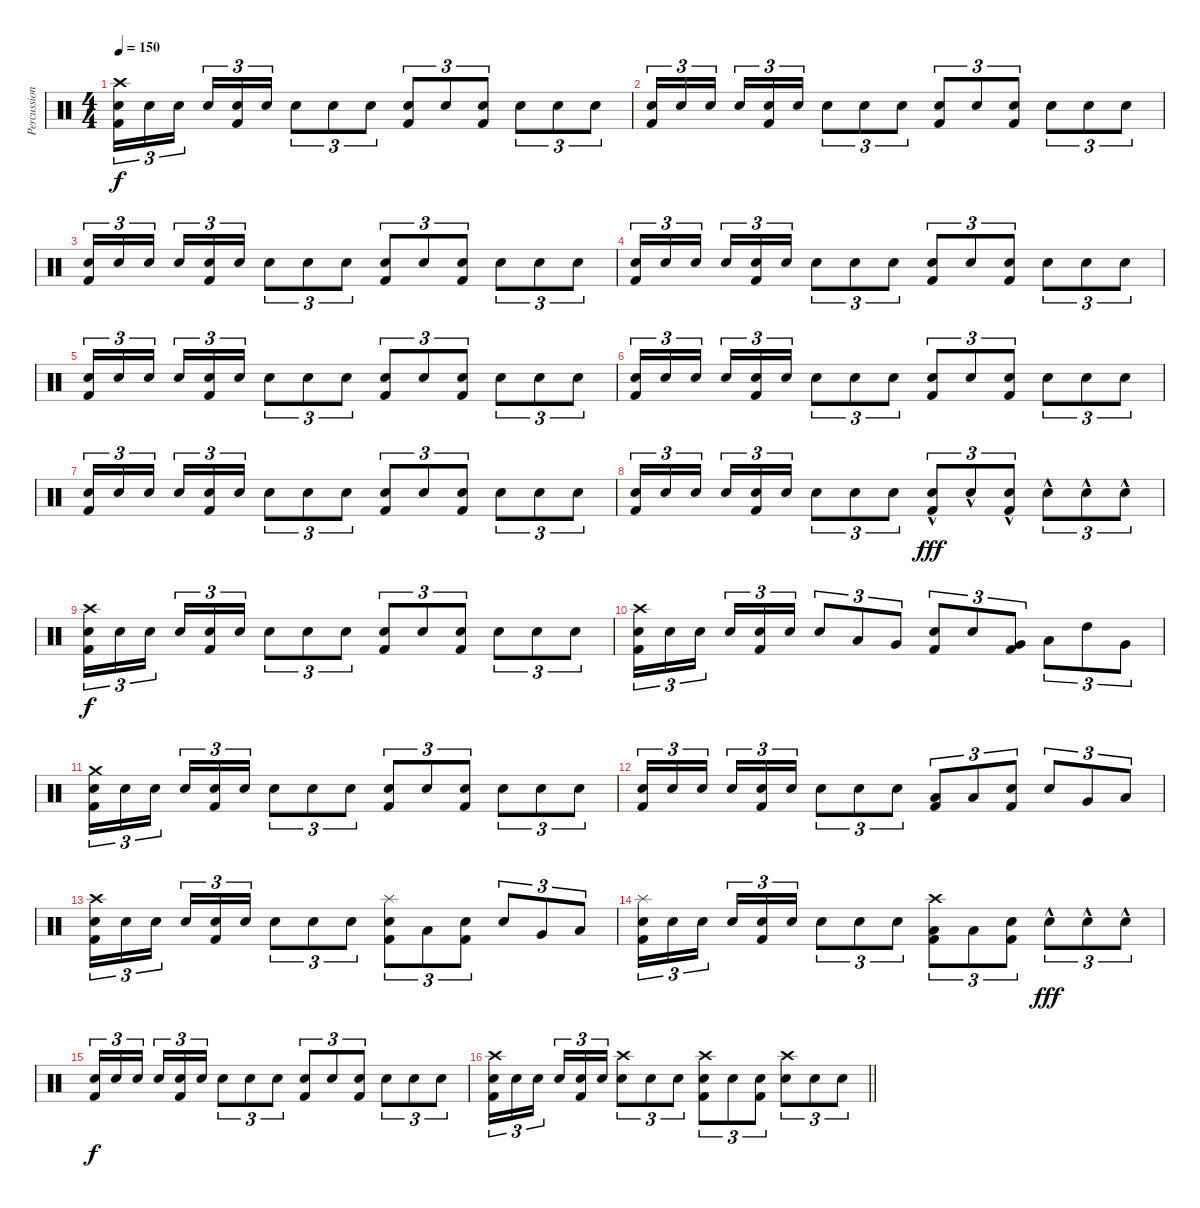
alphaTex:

\track ("Percussion" "Percussion") {instrument percussion}
\staff {score}
\articulation defaults
\ts (4 4)
\tempo 150
\clef neutral
\ks c
("Crash high (hit)" "Electric Snare (hit)" "Kick (hit) 2").16{tu (3 2) dy f} "Electric Snare (hit)".16{tu (3 2)} "Electric Snare (hit)".16{tu (3 2) beam splitsecondary} "Electric Snare (hit)".16{tu (3 2)} ("Electric Snare (hit)" "Kick (hit) 2").16{tu (3 2)} "Electric Snare (hit)".16{tu (3 2)} "Electric Snare (hit)".8{tu (3 2)} "Electric Snare (hit)".8{tu (3 2)} "Electric Snare (hit)".8{tu (3 2)} ("Electric Snare (hit)" "Kick (hit) 2").8{tu (3 2)} "Electric Snare (hit)".8{tu (3 2)} ("Electric Snare (hit)" "Kick (hit) 2").8{tu (3 2)} "Electric Snare (hit)".8{tu (3 2)} "Electric Snare (hit)".8{tu (3 2)} "Electric Snare (hit)".8{tu (3 2)} |
("Electric Snare (hit)" "Kick (hit) 2").16{tu (3 2)} "Electric Snare (hit)".16{tu (3 2)} "Electric Snare (hit)".16{tu (3 2) beam splitsecondary} "Electric Snare (hit)".16{tu (3 2)} ("Electric Snare (hit)" "Kick (hit) 2").16{tu (3 2)} "Electric Snare (hit)".16{tu (3 2)} "Electric Snare (hit)".8{tu (3 2)} "Electric Snare (hit)".8{tu (3 2)} "Electric Snare (hit)".8{tu (3 2)} ("Electric Snare (hit)" "Kick (hit) 2").8{tu (3 2)} "Electric Snare (hit)".8{tu (3 2)} ("Electric Snare (hit)" "Kick (hit) 2").8{tu (3 2)} "Electric Snare (hit)".8{tu (3 2)} "Electric Snare (hit)".8{tu (3 2)} "Electric Snare (hit)".8{tu (3 2)} |
("Electric Snare (hit)" "Kick (hit) 2").16{tu (3 2)} "Electric Snare (hit)".16{tu (3 2)} "Electric Snare (hit)".16{tu (3 2) beam splitsecondary} "Electric Snare (hit)".16{tu (3 2)} ("Electric Snare (hit)" "Kick (hit) 2").16{tu (3 2)} "Electric Snare (hit)".16{tu (3 2)} "Electric Snare (hit)".8{tu (3 2)} "Electric Snare (hit)".8{tu (3 2)} "Electric Snare (hit)".8{tu (3 2)} ("Electric Snare (hit)" "Kick (hit) 2").8{tu (3 2)} "Electric Snare (hit)".8{tu (3 2)} ("Electric Snare (hit)" "Kick (hit) 2").8{tu (3 2)} "Electric Snare (hit)".8{tu (3 2)} "Electric Snare (hit)".8{tu (3 2)} "Electric Snare (hit)".8{tu (3 2)} |
("Electric Snare (hit)" "Kick (hit) 2").16{tu (3 2)} "Electric Snare (hit)".16{tu (3 2)} "Electric Snare (hit)".16{tu (3 2) beam splitsecondary} "Electric Snare (hit)".16{tu (3 2)} ("Electric Snare (hit)" "Kick (hit) 2").16{tu (3 2)} "Electric Snare (hit)".16{tu (3 2)} "Electric Snare (hit)".8{tu (3 2)} "Electric Snare (hit)".8{tu (3 2)} "Electric Snare (hit)".8{tu (3 2)} ("Electric Snare (hit)" "Kick (hit) 2").8{tu (3 2)} "Electric Snare (hit)".8{tu (3 2)} ("Electric Snare (hit)" "Kick (hit) 2").8{tu (3 2)} "Electric Snare (hit)".8{tu (3 2)} "Electric Snare (hit)".8{tu (3 2)} "Electric Snare (hit)".8{tu (3 2)} |
("Electric Snare (hit)" "Kick (hit) 2").16{tu (3 2)} "Electric Snare (hit)".16{tu (3 2)} "Electric Snare (hit)".16{tu (3 2) beam splitsecondary} "Electric Snare (hit)".16{tu (3 2)} ("Electric Snare (hit)" "Kick (hit) 2").16{tu (3 2)} "Electric Snare (hit)".16{tu (3 2)} "Electric Snare (hit)".8{tu (3 2)} "Electric Snare (hit)".8{tu (3 2)} "Electric Snare (hit)".8{tu (3 2)} ("Electric Snare (hit)" "Kick (hit) 2").8{tu (3 2)} "Electric Snare (hit)".8{tu (3 2)} ("Electric Snare (hit)" "Kick (hit) 2").8{tu (3 2)} "Electric Snare (hit)".8{tu (3 2)} "Electric Snare (hit)".8{tu (3 2)} "Electric Snare (hit)".8{tu (3 2)} |
("Electric Snare (hit)" "Kick (hit) 2").16{tu (3 2)} "Electric Snare (hit)".16{tu (3 2)} "Electric Snare (hit)".16{tu (3 2) beam splitsecondary} "Electric Snare (hit)".16{tu (3 2)} ("Electric Snare (hit)" "Kick (hit) 2").16{tu (3 2)} "Electric Snare (hit)".16{tu (3 2)} "Electric Snare (hit)".8{tu (3 2)} "Electric Snare (hit)".8{tu (3 2)} "Electric Snare (hit)".8{tu (3 2)} ("Electric Snare (hit)" "Kick (hit) 2").8{tu (3 2)} "Electric Snare (hit)".8{tu (3 2)} ("Electric Snare (hit)" "Kick (hit) 2").8{tu (3 2)} "Electric Snare (hit)".8{tu (3 2)} "Electric Snare (hit)".8{tu (3 2)} "Electric Snare (hit)".8{tu (3 2)} |
("Electric Snare (hit)" "Kick (hit) 2").16{tu (3 2)} "Electric Snare (hit)".16{tu (3 2)} "Electric Snare (hit)".16{tu (3 2) beam splitsecondary} "Electric Snare (hit)".16{tu (3 2)} ("Electric Snare (hit)" "Kick (hit) 2").16{tu (3 2)} "Electric Snare (hit)".16{tu (3 2)} "Electric Snare (hit)".8{tu (3 2)} "Electric Snare (hit)".8{tu (3 2)} "Electric Snare (hit)".8{tu (3 2)} ("Electric Snare (hit)" "Kick (hit) 2").8{tu (3 2)} "Electric Snare (hit)".8{tu (3 2)} ("Electric Snare (hit)" "Kick (hit) 2").8{tu (3 2)} "Electric Snare (hit)".8{tu (3 2)} "Electric Snare (hit)".8{tu (3 2)} "Electric Snare (hit)".8{tu (3 2)} |
("Electric Snare (hit)" "Kick (hit) 2").16{tu (3 2)} "Electric Snare (hit)".16{tu (3 2)} "Electric Snare (hit)".16{tu (3 2) beam splitsecondary} "Electric Snare (hit)".16{tu (3 2)} ("Electric Snare (hit)" "Kick (hit) 2").16{tu (3 2)} "Electric Snare (hit)".16{tu (3 2)} "Electric Snare (hit)".8{tu (3 2)} "Electric Snare (hit)".8{tu (3 2)} "Electric Snare (hit)".8{tu (3 2)} ("Electric Snare (hit)"{hac} "Kick (hit) 2"{hac}).8{tu (3 2) dy fff} "Electric Snare (hit)"{hac}.8{tu (3 2)} ("Electric Snare (hit)"{hac} "Kick (hit) 2"{hac}).8{tu (3 2)} "Electric Snare (hit)"{hac}.8{tu (3 2)} "Electric Snare (hit)"{hac}.8{tu (3 2)} "Electric Snare (hit)"{hac}.8{tu (3 2)} |
("Crash high (hit)" "Electric Snare (hit)" "Kick (hit) 2").16{tu (3 2) dy f} "Electric Snare (hit)".16{tu (3 2)} "Electric Snare (hit)".16{tu (3 2) beam splitsecondary} "Electric Snare (hit)".16{tu (3 2)} ("Electric Snare (hit)" "Kick (hit) 2").16{tu (3 2)} "Electric Snare (hit)".16{tu (3 2)} "Electric Snare (hit)".8{tu (3 2)} "Electric Snare (hit)".8{tu (3 2)} "Electric Snare (hit)".8{tu (3 2)} ("Electric Snare (hit)" "Kick (hit) 2").8{tu (3 2)} "Electric Snare (hit)".8{tu (3 2)} ("Electric Snare (hit)" "Kick (hit) 2").8{tu (3 2)} "Electric Snare (hit)".8{tu (3 2)} "Electric Snare (hit)".8{tu (3 2)} "Electric Snare (hit)".8{tu (3 2)} |
("Crash high (hit)" "Electric Snare (hit)" "Kick (hit) 2").16{tu (3 2)} "Electric Snare (hit)".16{tu (3 2)} "Electric Snare (hit)".16{tu (3 2) beam splitsecondary} "Electric Snare (hit)".16{tu (3 2)} ("Electric Snare (hit)" "Kick (hit) 2").16{tu (3 2)} "Electric Snare (hit)".16{tu (3 2)} "Electric Snare (hit)".8{tu (3 2)} "Low Floor Tom (hit)".8{tu (3 2)} "Very Low Tom (hit)".8{tu (3 2)} ("Electric Snare (hit)" "Kick (hit) 2").8{tu (3 2)} "Electric Snare (hit)".8{tu (3 2)} ("Very Low Tom (hit)" "Kick (hit) 2").8{tu (3 2)} "Low Floor Tom (hit)".8{tu (3 2)} "High Tom (hit)".8{tu (3 2)} "Very Low Tom (hit)".8{tu (3 2)} |
("Crash medium (hit)" "Electric Snare (hit)" "Kick (hit) 2").16{tu (3 2)} "Electric Snare (hit)".16{tu (3 2)} "Electric Snare (hit)".16{tu (3 2) beam splitsecondary} "Electric Snare (hit)".16{tu (3 2)} ("Electric Snare (hit)" "Kick (hit) 2").16{tu (3 2)} "Electric Snare (hit)".16{tu (3 2)} "Electric Snare (hit)".8{tu (3 2)} "Electric Snare (hit)".8{tu (3 2)} "Electric Snare (hit)".8{tu (3 2)} ("Electric Snare (hit)" "Kick (hit) 2").8{tu (3 2)} "Electric Snare (hit)".8{tu (3 2)} ("Electric Snare (hit)" "Kick (hit) 2").8{tu (3 2)} "Electric Snare (hit)".8{tu (3 2)} "Electric Snare (hit)".8{tu (3 2)} "Electric Snare (hit)".8{tu (3 2)} |
("Electric Snare (hit)" "Kick (hit) 2").16{tu (3 2)} "Electric Snare (hit)".16{tu (3 2)} "Electric Snare (hit)".16{tu (3 2) beam splitsecondary} "Electric Snare (hit)".16{tu (3 2)} ("Electric Snare (hit)" "Kick (hit) 2").16{tu (3 2)} "Electric Snare (hit)".16{tu (3 2)} "Electric Snare (hit)".8{tu (3 2)} "Electric Snare (hit)".8{tu (3 2)} "Electric Snare (hit)".8{tu (3 2)} ("Low Floor Tom (hit)" "Kick (hit) 2").8{tu (3 2)} "Low Floor Tom (hit)".8{tu (3 2)} ("Electric Snare (hit)" "Kick (hit) 2").8{tu (3 2)} "Electric Snare (hit)".8{tu (3 2)} "Very Low Tom (hit)".8{tu (3 2)} "Low Floor Tom (hit)".8{tu (3 2)} |
("Crash high (hit)" "Electric Snare (hit)" "Kick (hit) 2").16{tu (3 2)} "Electric Snare (hit)".16{tu (3 2)} "Electric Snare (hit)".16{tu (3 2) beam splitsecondary} "Electric Snare (hit)".16{tu (3 2)} ("Electric Snare (hit)" "Kick (hit) 2").16{tu (3 2)} "Electric Snare (hit)".16{tu (3 2)} "Electric Snare (hit)".8{tu (3 2)} "Electric Snare (hit)".8{tu (3 2)} "Electric Snare (hit)".8{tu (3 2)} ("Splash (hit)" "Electric Snare (hit)" "Kick (hit) 2").8{tu (3 2)} "Low Floor Tom (hit)".8{tu (3 2)} ("Electric Snare (hit)" "Kick (hit) 2").8{tu (3 2)} "Electric Snare (hit)".8{tu (3 2)} "Very Low Tom (hit)".8{tu (3 2)} "Low Floor Tom (hit)".8{tu (3 2)} |
("Splash (hit)" "Electric Snare (hit)" "Kick (hit) 2").16{tu (3 2)} "Electric Snare (hit)".16{tu (3 2)} "Electric Snare (hit)".16{tu (3 2) beam splitsecondary} "Electric Snare (hit)".16{tu (3 2)} ("Electric Snare (hit)" "Kick (hit) 2").16{tu (3 2)} "Electric Snare (hit)".16{tu (3 2)} "Electric Snare (hit)".8{tu (3 2)} "Electric Snare (hit)".8{tu (3 2)} "Electric Snare (hit)".8{tu (3 2)} ("Crash high (hit)" "Low Floor Tom (hit)" "Kick (hit) 2").8{tu (3 2)} "Low Floor Tom (hit)".8{tu (3 2)} ("Electric Snare (hit)" "Kick (hit) 2").8{tu (3 2)} "Electric Snare (hit)"{hac}.8{tu (3 2) dy fff} "Electric Snare (hit)"{hac}.8{tu (3 2)} "Electric Snare (hit)"{hac}.8{tu (3 2)} |
("Electric Snare (hit)" "Kick (hit) 2").16{tu (3 2) dy f} "Electric Snare (hit)".16{tu (3 2)} "Electric Snare (hit)".16{tu (3 2) beam splitsecondary} "Electric Snare (hit)".16{tu (3 2)} ("Electric Snare (hit)" "Kick (hit) 2").16{tu (3 2)} "Electric Snare (hit)".16{tu (3 2)} "Electric Snare (hit)".8{tu (3 2)} "Electric Snare (hit)".8{tu (3 2)} "Electric Snare (hit)".8{tu (3 2)} ("Electric Snare (hit)" "Kick (hit) 2").8{tu (3 2)} "Electric Snare (hit)".8{tu (3 2)} ("Electric Snare (hit)" "Kick (hit) 2").8{tu (3 2)} "Electric Snare (hit)".8{tu (3 2)} "Electric Snare (hit)".8{tu (3 2)} "Electric Snare (hit)".8{tu (3 2)} |
\barLineRight lightlight
("Crash high (hit)" "Electric Snare (hit)" "Kick (hit) 2").16{tu (3 2)} "Electric Snare (hit)".16{tu (3 2)} "Electric Snare (hit)".16{tu (3 2) beam splitsecondary} "Electric Snare (hit)".16{tu (3 2)} ("Electric Snare (hit)" "Kick (hit) 2").16{tu (3 2)} "Electric Snare (hit)".16{tu (3 2)} ("Crash high (hit)" "Electric Snare (hit)").8{tu (3 2)} "Electric Snare (hit)".8{tu (3 2)} "Electric Snare (hit)".8{tu (3 2)} ("Crash high (hit)" "Electric Snare (hit)" "Kick (hit) 2").8{tu (3 2)} "Electric Snare (hit)".8{tu (3 2)} ("Electric Snare (hit)" "Kick (hit) 2").8{tu (3 2)} ("Crash high (hit)" "Electric Snare (hit)").8{tu (3 2)} "Electric Snare (hit)".8{tu (3 2)} "Electric Snare (hit)".8{tu (3 2)}
